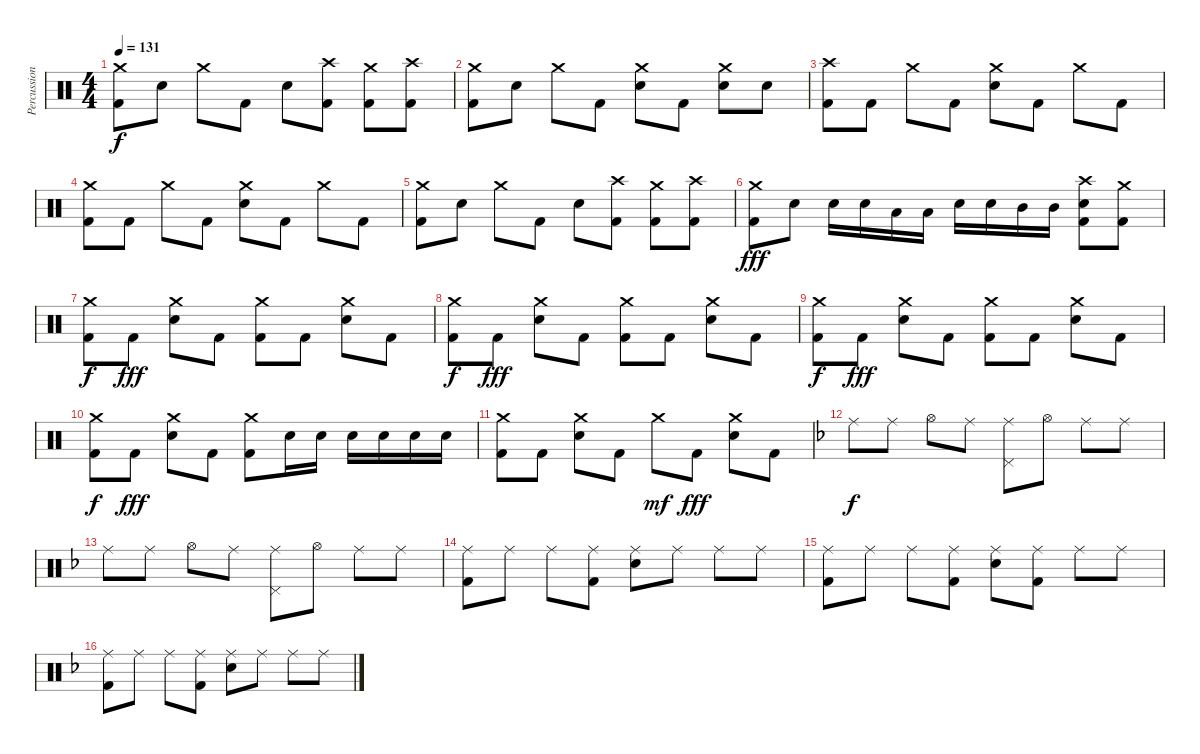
\track ("Percussion" "Percussion") {instrument percussion}
\staff {score}
\articulation defaults
\ts (4 4)
\tempo 131
\clef neutral
\ks c
("Crash medium (hit)" "Kick (hit) 2").8{dy f} "Electric Snare (hit)".8 "Crash medium (hit)".8 "Kick (hit) 2".8 "Electric Snare (hit)".8 ("Crash high (hit)" "Kick (hit) 2").8 ("Crash medium (hit)" "Kick (hit) 2").8 ("Crash high (hit)" "Kick (hit) 2").8 |
("Crash medium (hit)" "Kick (hit) 2").8 "Electric Snare (hit)".8 "Crash medium (hit)".8 "Kick (hit) 2".8 ("Crash medium (hit)" "Electric Snare (hit)").8 "Kick (hit) 2".8 ("Crash medium (hit)" "Electric Snare (hit)").8 "Electric Snare (hit)".8 |
("Crash high (hit)" "Kick (hit) 2").8 "Kick (hit) 2".8 "Crash medium (hit)".8 "Kick (hit) 2".8 ("Crash medium (hit)" "Electric Snare (hit)").8 "Kick (hit) 2".8 "Crash medium (hit)".8 "Kick (hit) 2".8 |
("Crash medium (hit)" "Kick (hit) 2").8 "Kick (hit) 2".8 "Crash medium (hit)".8 "Kick (hit) 2".8 ("Crash medium (hit)" "Electric Snare (hit)").8 "Kick (hit) 2".8 "Crash medium (hit)".8 "Kick (hit) 2".8 |
("Crash medium (hit)" "Kick (hit) 2").8 "Electric Snare (hit)".8 "Crash medium (hit)".8 "Kick (hit) 2".8 "Electric Snare (hit)".8 ("Crash high (hit)" "Kick (hit) 2").8 ("Crash medium (hit)" "Kick (hit) 2").8 ("Crash high (hit)" "Kick (hit) 2").8 |
("Crash medium (hit)" "Kick (hit) 2").8{dy fff} "Electric Snare (hit)".8 "Electric Snare (hit)".16 "Electric Snare (hit)".16 "Low Tom (hit)".16 "Low Tom (hit)".16 "Electric Snare (hit)".16 "Electric Snare (hit)".16 "Mid Tom (hit)".16 "Mid Tom (hit)".16 ("Crash high (hit)" "Electric Snare (hit)" "Kick (hit) 2").8 ("Crash medium (hit)" "Kick (hit) 2").8 |
("Crash medium (hit)" "Kick (hit) 2").8{dy f} "Kick (hit) 2".8{dy fff} ("Crash medium (hit)" "Electric Snare (hit)").8 "Kick (hit) 2".8 ("Crash medium (hit)" "Kick (hit) 2").8 "Kick (hit) 2".8 ("Crash medium (hit)" "Electric Snare (hit)").8 "Kick (hit) 2".8 |
("Crash medium (hit)" "Kick (hit) 2").8{dy f} "Kick (hit) 2".8{dy fff} ("Crash medium (hit)" "Electric Snare (hit)").8 "Kick (hit) 2".8 ("Crash medium (hit)" "Kick (hit) 2").8 "Kick (hit) 2".8 ("Crash medium (hit)" "Electric Snare (hit)").8 "Kick (hit) 2".8 |
("Crash medium (hit)" "Kick (hit) 2").8{dy f} "Kick (hit) 2".8{dy fff} ("Crash medium (hit)" "Electric Snare (hit)").8 "Kick (hit) 2".8 ("Crash medium (hit)" "Kick (hit) 2").8 "Kick (hit) 2".8 ("Crash medium (hit)" "Electric Snare (hit)").8 "Kick (hit) 2".8 |
("Crash medium (hit)" "Kick (hit) 2").8{dy f} "Kick (hit) 2".8{dy fff} ("Crash medium (hit)" "Electric Snare (hit)").8 "Kick (hit) 2".8 ("Crash medium (hit)" "Kick (hit) 2").8 "Electric Snare (hit)".16 "Electric Snare (hit)".16 "Electric Snare (hit)".16 "Electric Snare (hit)".16 "Electric Snare (hit)".16 "Electric Snare (hit)".16 |
("Crash medium (hit)" "Kick (hit) 2").8 "Kick (hit) 2".8 ("Crash medium (hit)" "Electric Snare (hit)").8 "Kick (hit) 2".8 "Crash medium (hit)".8{dy mf} "Kick (hit) 2".8{dy fff} ("Crash medium (hit)" "Electric Snare (hit)").8 "Kick (hit) 2".8 |
\ks f "Ride (middle)".8{dy f} "Ride (middle)".8 "Hi-Hat (open)".8 "Ride (middle)".8
("Ride (middle)" "Pedal Hi-Hat (hit)").8 "Hi-Hat (open)".8 "Ride (middle)".8 "Ride (middle)".8 |
"Ride (middle)".8 "Ride (middle)".8 "Hi-Hat (open)".8 "Ride (middle)".8 ("Ride (middle)" "Pedal Hi-Hat (hit)").8 "Hi-Hat (open)".8 "Ride (middle)".8 "Ride (middle)".8 |
("Ride (middle)" "Kick (hit) 2").8 "Ride (middle)".8 "Ride (middle)".8 ("Ride (middle)" "Kick (hit) 2").8 ("Ride (middle)" "Electric Snare (hit)").8 "Ride (middle)".8 "Ride (middle)".8 "Ride (middle)".8 |
("Ride (middle)" "Kick (hit) 2").8 "Ride (middle)".8 "Ride (middle)".8 ("Ride (middle)" "Kick (hit) 2").8 ("Ride (middle)" "Electric Snare (hit)").8 ("Ride (middle)" "Kick (hit) 2").8 "Ride (middle)".8 "Ride (middle)".8 |
("Ride (middle)" "Kick (hit) 2").8 "Ride (middle)".8 "Ride (middle)".8 ("Ride (middle)" "Kick (hit) 2").8 ("Ride (middle)" "Electric Snare (hit)").8 "Ride (middle)".8 "Ride (middle)".8 "Ride (middle)".8
